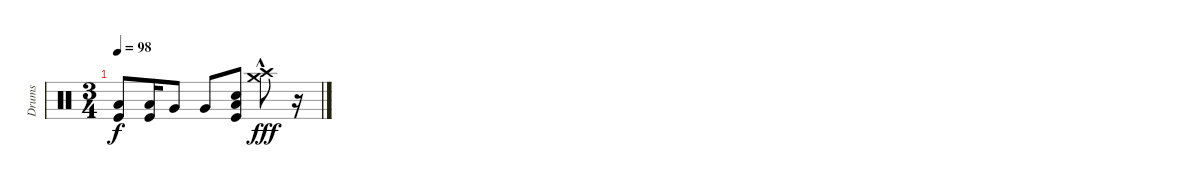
\track ("Drums" "Drums") {instrument percussion}
\staff {score}
\articulation defaults
\ts (3 4)
\tempo 98
\clef neutral
\ks c
("Kick (hit)" "Low Floor Tom (hit)").8{dy f} ("Kick (hit)" "Low Floor Tom (hit)").16 "Very Low Tom (hit)".8 "Very Low Tom (hit)".8 ("Kick (hit)" "Low Floor Tom (hit)" "Snare (hit) 2").8 ("Crash high (hit)"{hac} "Crash medium (hit)"{hac}).8{dy fff} r.16
